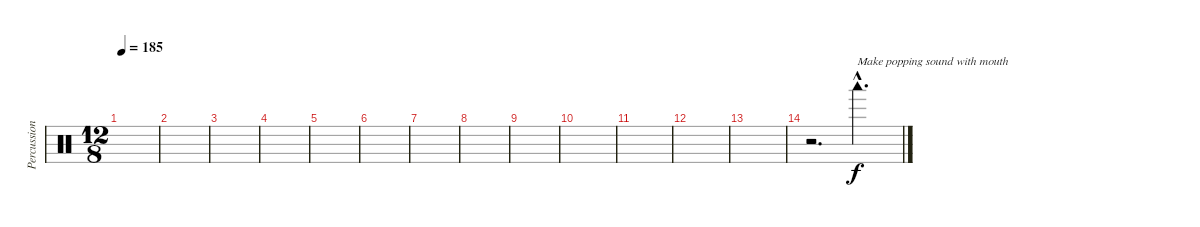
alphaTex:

\track ("Percussion" "Percussion") {instrument percussion}
\staff {score}
\articulation defaults
\ts (12 8)
\tempo 185
\clef neutral
\ks c
|
|
|
|
|
|
|
|
|
|
|
|
|
r.2{d volume 16} "Woodblock low (hit)"{hac}.2{d txt "Make popping sound with mouth"}
